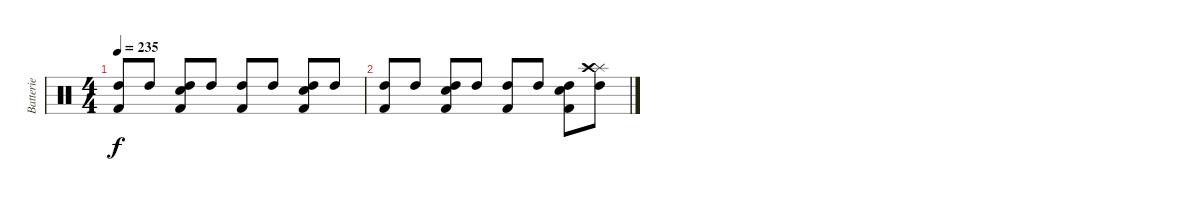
\track ("Batterie" "Batterie") {instrument percussion}
\staff {score}
\articulation defaults
\ts (4 4)
\tempo 235
\clef neutral
\ks c
("Kick (hit) 2" "High Tom (hit)").8{dy f} "High Tom (hit)".8 ("Kick (hit) 2" "High Tom (hit)" "Electric Snare (hit)").8 "High Tom (hit)".8 ("Kick (hit) 2" "High Tom (hit)").8 "High Tom (hit)".8 ("Kick (hit) 2" "High Tom (hit)" "Electric Snare (hit)").8 "High Tom (hit)".8 |
("Kick (hit) 2" "High Tom (hit)").8 "High Tom (hit)".8 ("Kick (hit) 2" "High Tom (hit)" "Electric Snare (hit)").8 "High Tom (hit)".8 ("Kick (hit) 2" "High Tom (hit)").8 "High Tom (hit)".8 ("Kick (hit) 2" "High Tom (hit)" "Electric Snare (hit)").8 ("Splash (hit)" "Crash high (hit)" "High Tom (hit)").8
